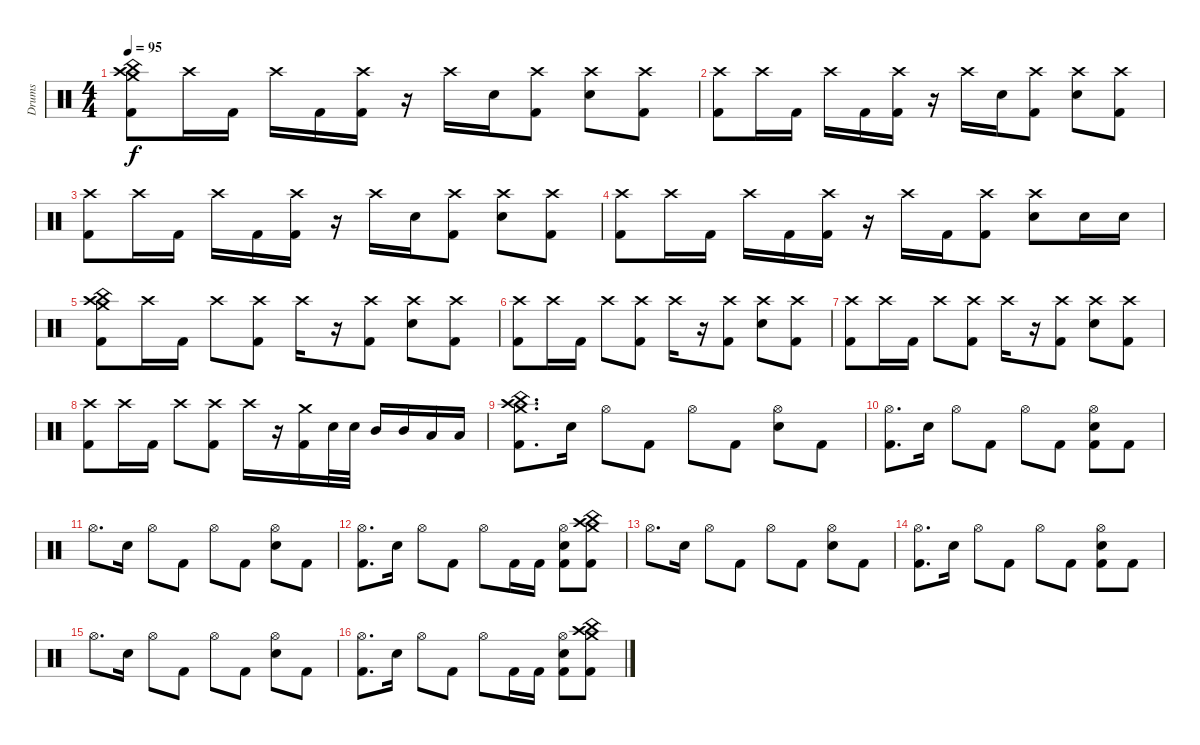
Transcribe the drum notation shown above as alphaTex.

\track ("Drums" "Drums") {instrument percussion}
\staff {score}
\articulation defaults
\ts (4 4)
\tempo 95
\clef neutral
\ks c
("Crash medium (hit)" "Crash high (hit)" "China (hit)" "Kick (hit) 2").8{dy f} "Crash high (hit)".16 "Kick (hit) 2".16 "Crash high (hit)".16 "Kick (hit) 2".16 ("Crash high (hit)" "Kick (hit) 2").16 r.16 "Crash high (hit)".16 "Electric Snare (hit)".16 ("Crash high (hit)" "Kick (hit) 2").8 ("Crash high (hit)" "Electric Snare (hit)").8 ("Crash high (hit)" "Kick (hit) 2").8 |
("Crash high (hit)" "Kick (hit) 2").8 "Crash high (hit)".16 "Kick (hit) 2".16 "Crash high (hit)".16 "Kick (hit) 2".16 ("Crash high (hit)" "Kick (hit) 2").16 r.16 "Crash high (hit)".16 "Electric Snare (hit)".16 ("Crash high (hit)" "Kick (hit) 2").8 ("Crash high (hit)" "Electric Snare (hit)").8 ("Crash high (hit)" "Kick (hit) 2").8 |
("Crash high (hit)" "Kick (hit) 2").8 "Crash high (hit)".16 "Kick (hit) 2".16 "Crash high (hit)".16 "Kick (hit) 2".16 ("Crash high (hit)" "Kick (hit) 2").16 r.16 "Crash high (hit)".16 "Electric Snare (hit)".16 ("Crash high (hit)" "Kick (hit) 2").8 ("Crash high (hit)" "Electric Snare (hit)").8 ("Crash high (hit)" "Kick (hit) 2").8 |
("Crash high (hit)" "Kick (hit) 2").8 "Crash high (hit)".16 "Kick (hit) 2".16 "Crash high (hit)".16 "Kick (hit) 2".16 ("Crash high (hit)" "Kick (hit) 2").16 r.16 "Crash high (hit)".16 "Kick (hit) 2".16 ("Crash high (hit)" "Kick (hit) 2").8 ("Crash high (hit)" "Electric Snare (hit)").8 "Electric Snare (hit)".16 "Electric Snare (hit)".16 |
("Crash high (hit)" "Crash medium (hit)" "China (hit)" "Kick (hit) 2").8 "Crash high (hit)".16 "Kick (hit) 2".16 "Crash high (hit)".8 ("Crash high (hit)" "Kick (hit) 2").8 "Crash high (hit)".16 r.16 ("Crash high (hit)" "Kick (hit) 2").8 ("Crash high (hit)" "Electric Snare (hit)").8 ("Crash high (hit)" "Kick (hit) 2").8 |
("Crash high (hit)" "Kick (hit) 2").8 "Crash high (hit)".16 "Kick (hit) 2".16 "Crash high (hit)".8 ("Crash high (hit)" "Kick (hit) 2").8 "Crash high (hit)".16 r.16 ("Crash high (hit)" "Kick (hit) 2").8 ("Crash high (hit)" "Electric Snare (hit)").8 ("Crash high (hit)" "Kick (hit) 2").8 |
("Crash high (hit)" "Kick (hit) 2").8 "Crash high (hit)".16 "Kick (hit) 2".16 "Crash high (hit)".8 ("Crash high (hit)" "Kick (hit) 2").8 "Crash high (hit)".16 r.16 ("Crash high (hit)" "Kick (hit) 2").8 ("Crash high (hit)" "Electric Snare (hit)").8 ("Crash high (hit)" "Kick (hit) 2").8 |
("Crash high (hit)" "Kick (hit) 2").8 "Crash high (hit)".16 "Kick (hit) 2".16 "Crash high (hit)".8 ("Crash high (hit)" "Kick (hit) 2").8 "Crash high (hit)".16 r.16 ("Crash medium (hit)" "Kick (hit) 2").16 "Electric Snare (hit)".32 "Electric Snare (hit)".32 "Mid Tom (hit)".16 "Mid Tom (hit)".16 "Low Tom (hit)".16 "Low Tom (hit)".16 |
("Crash high (hit)" "Crash medium (hit)" "China (hit)" "Kick (hit) 2").8{d} "Electric Snare (hit)".16 "Hi-Hat (open)".8 "Kick (hit) 2".8 "Hi-Hat (open)".8 "Kick (hit) 2".8 ("Hi-Hat (open)" "Electric Snare (hit)").8 "Kick (hit) 2".8 |
("Hi-Hat (open)" "Kick (hit) 2").8{d} "Electric Snare (hit)".16 "Hi-Hat (open)".8 "Kick (hit) 2".8 "Hi-Hat (open)".8 "Kick (hit) 2".8 ("Hi-Hat (open)" "Electric Snare (hit)" "Kick (hit) 2").8 "Kick (hit) 2".8 |
"Hi-Hat (open)".8{d} "Electric Snare (hit)".16 "Hi-Hat (open)".8 "Kick (hit) 2".8 "Hi-Hat (open)".8 "Kick (hit) 2".8 ("Hi-Hat (open)" "Electric Snare (hit)").8 "Kick (hit) 2".8 |
("Hi-Hat (open)" "Kick (hit) 2").8{d} "Electric Snare (hit)".16 "Hi-Hat (open)".8 "Kick (hit) 2".8 "Hi-Hat (open)".8 "Kick (hit) 2".16 "Kick (hit) 2".16 ("Hi-Hat (open)" "Electric Snare (hit)" "Kick (hit) 2").8 ("Crash high (hit)" "Crash medium (hit)" "China (hit)" "Kick (hit) 2").8 |
"Hi-Hat (open)".8{d} "Electric Snare (hit)".16 "Hi-Hat (open)".8 "Kick (hit) 2".8 "Hi-Hat (open)".8 "Kick (hit) 2".8 ("Hi-Hat (open)" "Electric Snare (hit)").8 "Kick (hit) 2".8 |
("Hi-Hat (open)" "Kick (hit) 2").8{d} "Electric Snare (hit)".16 "Hi-Hat (open)".8 "Kick (hit) 2".8 "Hi-Hat (open)".8 "Kick (hit) 2".8 ("Hi-Hat (open)" "Electric Snare (hit)" "Kick (hit) 2").8 "Kick (hit) 2".8 |
"Hi-Hat (open)".8{d} "Electric Snare (hit)".16 "Hi-Hat (open)".8 "Kick (hit) 2".8 "Hi-Hat (open)".8 "Kick (hit) 2".8 ("Hi-Hat (open)" "Electric Snare (hit)").8 "Kick (hit) 2".8 |
("Hi-Hat (open)" "Kick (hit) 2").8{d} "Electric Snare (hit)".16 "Hi-Hat (open)".8 "Kick (hit) 2".8 "Hi-Hat (open)".8 "Kick (hit) 2".16 "Kick (hit) 2".16 ("Hi-Hat (open)" "Electric Snare (hit)" "Kick (hit) 2").8 ("Crash high (hit)" "Crash medium (hit)" "China (hit)" "Kick (hit) 2").8
